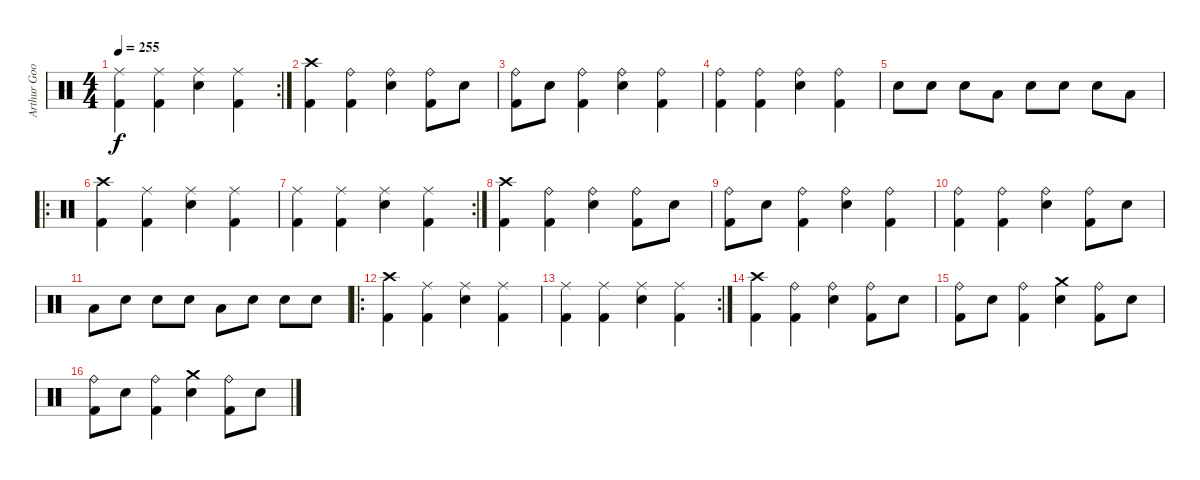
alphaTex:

\track ("Arthur Googy" "Arthur Goo") {instrument percussion}
\staff {score}
\articulation defaults
\rc 2
\ts (4 4)
\tempo 255
\clef neutral
\ks c
("Ride (middle)" "Kick (hit) 2").4{dy f} ("Ride (middle)" "Kick (hit) 2").4 ("Ride (middle)" "Electric Snare (hit)").4 ("Ride (middle)" "Kick (hit) 2").4 |
("Crash high (hit)" "Kick (hit) 2").4 ("Ride (bell)" "Kick (hit) 2").4 ("Ride (bell)" "Electric Snare (hit)").4 ("Ride (bell)" "Kick (hit) 2").8 "Electric Snare (hit)".8 |
("Ride (bell)" "Kick (hit) 2").8 "Electric Snare (hit)".8 ("Ride (bell)" "Kick (hit) 2").4 ("Ride (bell)" "Electric Snare (hit)").4 ("Ride (bell)" "Kick (hit) 2").4 |
("Ride (bell)" "Kick (hit) 2").4 ("Ride (bell)" "Kick (hit) 2").4 ("Ride (bell)" "Electric Snare (hit)").4 ("Ride (bell)" "Kick (hit) 2").4 |
"Electric Snare (hit)".8 "Electric Snare (hit)".8 "Electric Snare (hit)".8 "Low Tom (hit)".8 "Electric Snare (hit)".8 "Electric Snare (hit)".8 "Electric Snare (hit)".8 "Low Tom (hit)".8 |
\ro
("Crash high (hit)" "Kick (hit) 2").4 ("Ride (middle)" "Kick (hit) 2").4 ("Ride (middle)" "Electric Snare (hit)").4 ("Ride (middle)" "Kick (hit) 2").4 |
\rc 2
("Ride (middle)" "Kick (hit) 2").4 ("Ride (middle)" "Kick (hit) 2").4 ("Ride (middle)" "Electric Snare (hit)").4 ("Ride (middle)" "Kick (hit) 2").4 |
("Crash high (hit)" "Kick (hit) 2").4 ("Ride (bell)" "Kick (hit) 2").4 ("Ride (bell)" "Electric Snare (hit)").4 ("Ride (bell)" "Kick (hit) 2").8 "Electric Snare (hit)".8 |
("Ride (bell)" "Kick (hit) 2").8 "Electric Snare (hit)".8 ("Ride (bell)" "Kick (hit) 2").4 ("Ride (bell)" "Electric Snare (hit)").4 ("Ride (bell)" "Kick (hit) 2").4 |
("Ride (bell)" "Kick (hit) 2").4 ("Ride (bell)" "Kick (hit) 2").4 ("Ride (bell)" "Electric Snare (hit)").4 ("Ride (bell)" "Kick (hit) 2").8 "Electric Snare (hit)".8 |
"Low Tom (hit)".8 "Electric Snare (hit)".8 "Electric Snare (hit)".8 "Electric Snare (hit)".8 "Low Tom (hit)".8 "Electric Snare (hit)".8 "Electric Snare (hit)".8 "Electric Snare (hit)".8 |
\ro
("Crash high (hit)" "Kick (hit) 2").4 ("Ride (middle)" "Kick (hit) 2").4 ("Ride (middle)" "Electric Snare (hit)").4 ("Ride (middle)" "Kick (hit) 2").4 |
\rc 2
("Ride (middle)" "Kick (hit) 2").4 ("Ride (middle)" "Kick (hit) 2").4 ("Ride (middle)" "Electric Snare (hit)").4 ("Ride (middle)" "Kick (hit) 2").4 |
("Crash high (hit)" "Kick (hit) 2").4 ("Ride (bell)" "Kick (hit) 2").4 ("Ride (bell)" "Electric Snare (hit)").4 ("Ride (bell)" "Kick (hit) 2").8 "Electric Snare (hit)".8 |
("Ride (bell)" "Kick (hit) 2").8 "Electric Snare (hit)".8 ("Ride (bell)" "Kick (hit) 2").4 ("Crash medium (hit)" "Electric Snare (hit)").4 ("Ride (bell)" "Kick (hit) 2").8 "Electric Snare (hit)".8 |
("Ride (bell)" "Kick (hit) 2").8 "Electric Snare (hit)".8 ("Ride (bell)" "Kick (hit) 2").4 ("Crash medium (hit)" "Electric Snare (hit)").4 ("Ride (bell)" "Kick (hit) 2").8 "Electric Snare (hit)".8
